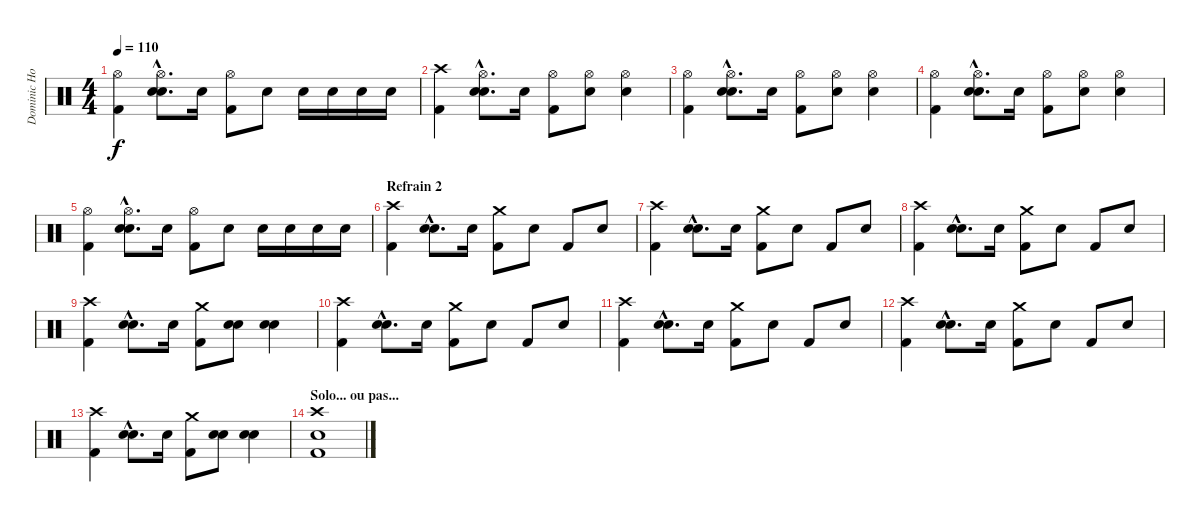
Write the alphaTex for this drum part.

\track ("Dominic Howard - Percussions" "Dominic Ho") {instrument percussion}
\staff {score}
\articulation defaults
\ts (4 4)
\tempo 110
\clef neutral
\ks c
("Hi-Hat (open)" "Kick (hit) 2").4{dy f} ("Hi-Hat (open)"{hac} "Snare (hit) 2"{hac} "Snare (hit) 2"{hac}).8{d} "Snare (hit) 2".16 ("Hi-Hat (open)" "Kick (hit) 2").8 "Snare (hit) 2".8 "Snare (hit) 2".16 "Snare (hit) 2".16 "Snare (hit) 2".16 "Snare (hit) 2".16 |
("Crash high (hit)" "Kick (hit) 2").4 ("Hi-Hat (open)"{hac} "Snare (hit) 2"{hac} "Snare (hit) 2"{hac}).8{d} "Snare (hit) 2".16 ("Hi-Hat (open)" "Kick (hit) 2").8 ("Hi-Hat (open)" "Snare (hit) 2").8 ("Hi-Hat (open)" "Snare (hit) 2").4 |
("Hi-Hat (open)" "Kick (hit) 2").4 ("Hi-Hat (open)"{hac} "Snare (hit) 2"{hac} "Snare (hit) 2"{hac}).8{d} "Snare (hit) 2".16 ("Hi-Hat (open)" "Kick (hit) 2").8 ("Hi-Hat (open)" "Snare (hit) 2").8 ("Hi-Hat (open)" "Snare (hit) 2").4 |
("Hi-Hat (open)" "Kick (hit) 2").4 ("Hi-Hat (open)"{hac} "Snare (hit) 2"{hac} "Snare (hit) 2"{hac}).8{d} "Snare (hit) 2".16 ("Hi-Hat (open)" "Kick (hit) 2").8 ("Hi-Hat (open)" "Snare (hit) 2").8 ("Hi-Hat (open)" "Snare (hit) 2").4 |
("Hi-Hat (open)" "Kick (hit) 2").4 ("Hi-Hat (open)"{hac} "Snare (hit) 2"{hac} "Snare (hit) 2"{hac}).8{d} "Snare (hit) 2".16 ("Hi-Hat (open)" "Kick (hit) 2").8 "Snare (hit) 2".8 "Snare (hit) 2".16 "Snare (hit) 2".16 "Snare (hit) 2".16 "Snare (hit) 2".16 |
\section ("" "Refrain 2")
("Crash high (hit)" "Kick (hit) 2").4 ("Snare (hit) 2"{hac} "Snare (hit) 2"{hac}).8{d} "Snare (hit) 2".16 ("Crash medium (hit)" "Kick (hit) 2").8 "Snare (hit) 2".8 "Kick (hit) 2".8 "Snare (hit) 2".8 |
("Crash high (hit)" "Kick (hit) 2").4 ("Snare (hit) 2"{hac} "Snare (hit) 2"{hac}).8{d} "Snare (hit) 2".16 ("Crash medium (hit)" "Kick (hit) 2").8 "Snare (hit) 2".8 "Kick (hit) 2".8 "Snare (hit) 2".8 |
("Crash high (hit)" "Kick (hit) 2").4 ("Snare (hit) 2"{hac} "Snare (hit) 2"{hac}).8{d} "Snare (hit) 2".16 ("Crash medium (hit)" "Kick (hit) 2").8 "Snare (hit) 2".8 "Kick (hit) 2".8 "Snare (hit) 2".8 |
("Crash high (hit)" "Kick (hit) 2").4 ("Snare (hit) 2"{hac} "Snare (hit) 2"{hac}).8{d} "Snare (hit) 2".16 ("Crash medium (hit)" "Kick (hit) 2").8 ("Snare (hit) 2" "Snare (hit) 2").8 ("Snare (hit) 2" "Snare (hit) 2").4 |
("Crash high (hit)" "Kick (hit) 2").4 ("Snare (hit) 2"{hac} "Snare (hit) 2"{hac}).8{d} "Snare (hit) 2".16 ("Crash medium (hit)" "Kick (hit) 2").8 "Snare (hit) 2".8 "Kick (hit) 2".8 "Snare (hit) 2".8 |
("Crash high (hit)" "Kick (hit) 2").4 ("Snare (hit) 2"{hac} "Snare (hit) 2"{hac}).8{d} "Snare (hit) 2".16 ("Crash medium (hit)" "Kick (hit) 2").8 "Snare (hit) 2".8 "Kick (hit) 2".8 "Snare (hit) 2".8 |
("Crash high (hit)" "Kick (hit) 2").4 ("Snare (hit) 2"{hac} "Snare (hit) 2"{hac}).8{d} "Snare (hit) 2".16 ("Crash medium (hit)" "Kick (hit) 2").8 "Snare (hit) 2".8 "Kick (hit) 2".8 "Snare (hit) 2".8 |
("Crash high (hit)" "Kick (hit) 2").4 ("Snare (hit) 2"{hac} "Snare (hit) 2"{hac}).8{d} "Snare (hit) 2".16 ("Crash medium (hit)" "Kick (hit) 2").8 ("Snare (hit) 2" "Snare (hit) 2").8 ("Snare (hit) 2" "Snare (hit) 2").4 |
\section ("" "Solo... ou pas...")
("Crash high (hit)" "Snare (hit) 2" "Kick (hit) 2").1
